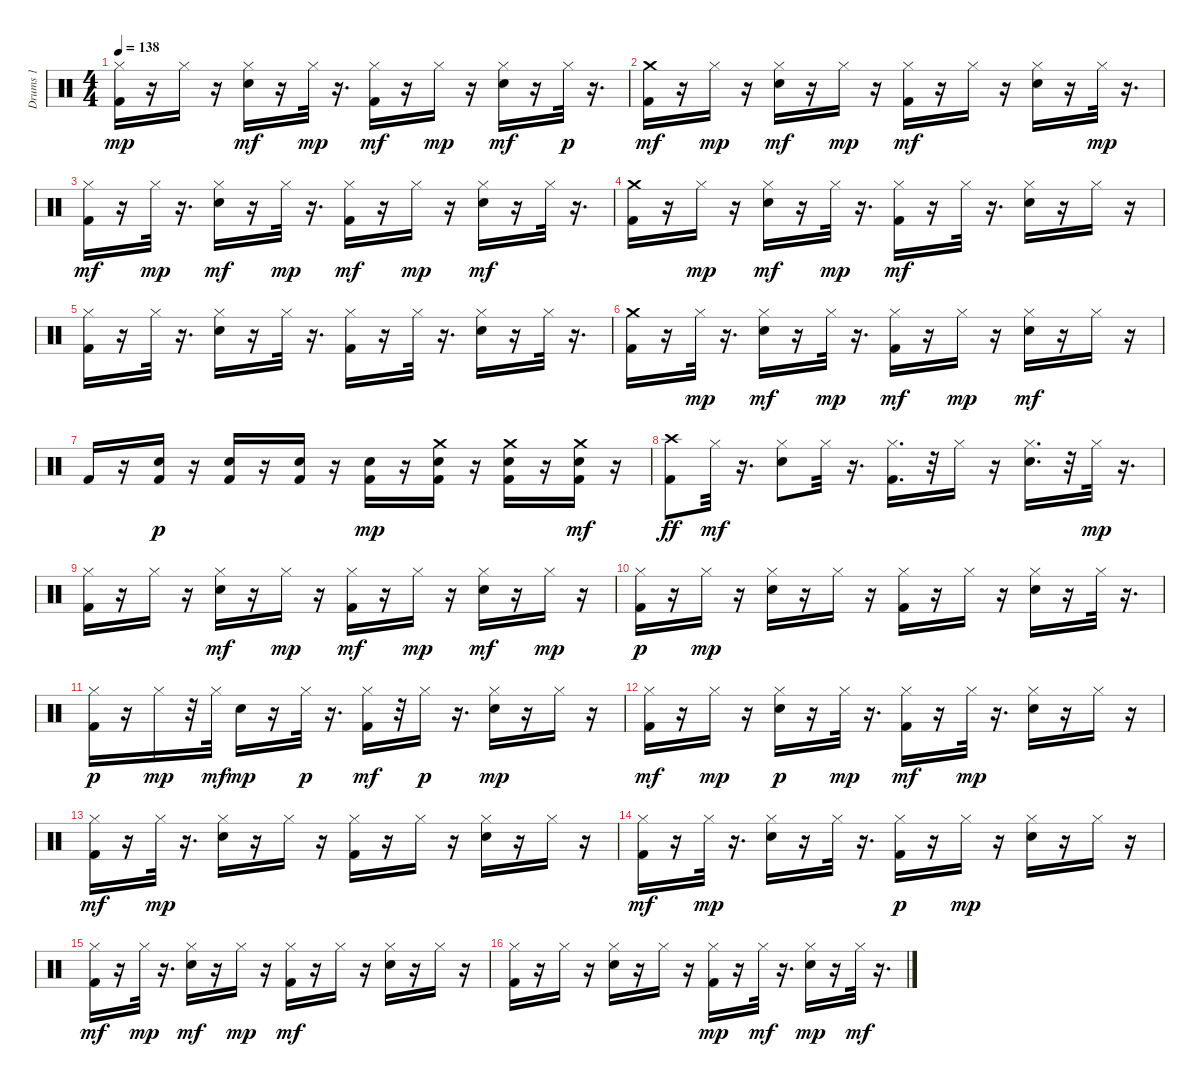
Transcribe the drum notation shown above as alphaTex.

\track ("Drums 1" "Drums 1") {instrument percussion}
\staff {score}
\articulation defaults
\ts (4 4)
\tempo 138
\clef neutral
\ks c
("Kick (hit) 2" "Hi-Hat (closed)").16{dy mp} r.16 "Hi-Hat (closed)".16 r.16 ("Snare (hit) 2" "Hi-Hat (closed)").16{dy mf} r.16 "Hi-Hat (closed)".32{dy mp} r.16{d} ("Kick (hit) 2" "Hi-Hat (closed)").16{dy mf} r.16 "Hi-Hat (closed)".16{dy mp} r.16 ("Snare (hit) 2" "Hi-Hat (closed)").16{dy mf} r.16 "Hi-Hat (closed)".32{dy p} r.16{d} |
("Kick (hit) 2" "Crash medium (hit)").16{dy mf} r.16 "Hi-Hat (closed)".16{dy mp} r.16 ("Hi-Hat (closed)" "Snare (hit) 2").16{dy mf} r.16 "Hi-Hat (closed)".16{dy mp} r.16 ("Kick (hit) 2" "Hi-Hat (closed)").16{dy mf} r.16 "Hi-Hat (closed)".16 r.16 ("Snare (hit) 2" "Hi-Hat (closed)").16 r.16 "Hi-Hat (closed)".32{dy mp} r.16{d} |
("Kick (hit) 2" "Hi-Hat (closed)").16{dy mf} r.16 "Hi-Hat (closed)".32{dy mp} r.16{d} ("Snare (hit) 2" "Hi-Hat (closed)").16{dy mf} r.16 "Hi-Hat (closed)".32{dy mp} r.16{d} ("Kick (hit) 2" "Hi-Hat (closed)").16{dy mf} r.16 "Hi-Hat (closed)".16{dy mp} r.16 ("Snare (hit) 2" "Hi-Hat (closed)").16{dy mf} r.16 "Hi-Hat (closed)".32 r.16{d} |
("Kick (hit) 2" "Crash medium (hit)").16 r.16 "Hi-Hat (closed)".16{dy mp} r.16 ("Snare (hit) 2" "Hi-Hat (closed)").16{dy mf} r.16 "Hi-Hat (closed)".32{dy mp} r.16{d} ("Kick (hit) 2" "Hi-Hat (closed)").16{dy mf} r.16 "Hi-Hat (closed)".32 r.16{d} ("Snare (hit) 2" "Hi-Hat (closed)").16 r.16 "Hi-Hat (closed)".16 r.16 |
("Kick (hit) 2" "Hi-Hat (closed)").16 r.16 "Hi-Hat (closed)".32 r.16{d} ("Snare (hit) 2" "Hi-Hat (closed)").16 r.16 "Hi-Hat (closed)".32 r.16{d} ("Kick (hit) 2" "Hi-Hat (closed)").16 r.16 "Hi-Hat (closed)".32 r.16{d} ("Snare (hit) 2" "Hi-Hat (closed)").16 r.16 "Hi-Hat (closed)".32 r.16{d} |
("Kick (hit) 2" "Crash medium (hit)").16 r.16 "Hi-Hat (closed)".32{dy mp} r.16{d} ("Snare (hit) 2" "Hi-Hat (closed)").16{dy mf} r.16 "Hi-Hat (closed)".32{dy mp} r.16{d} ("Kick (hit) 2" "Hi-Hat (closed)").16{dy mf} r.16 "Hi-Hat (closed)".16{dy mp} r.16 ("Snare (hit) 2" "Hi-Hat (closed)").16{dy mf} r.16 "Hi-Hat (closed)".16 r.16 |
"Kick (hit) 2".16 r.16 ("Kick (hit) 2" "Snare (hit) 2").16{dy p} r.16 ("Kick (hit) 2" "Snare (hit) 2").16 r.16 ("Kick (hit) 2" "Snare (hit) 2").16 r.16 ("Kick (hit) 2" "Snare (hit) 2").16{dy mp} r.16 ("Kick (hit) 2" "Crash medium (hit)" "Snare (hit) 2").16 r.16 ("Kick (hit) 2" "Crash medium (hit)" "Snare (hit) 2").16 r.16 ("Crash medium (hit)" "Kick (hit) 2" "Snare (hit) 2").16{dy mf} r.16 |
("Kick (hit) 2" "Crash high (hit)").8{dy ff} "Hi-Hat (closed)".32{dy mf} r.16{d} ("Hi-Hat (closed)" "Snare (hit) 2").8 "Hi-Hat (closed)".32 r.16{d} ("Kick (hit) 2" "Hi-Hat (closed)").16{d} r.32 "Hi-Hat (closed)".16 r.16 ("Hi-Hat (closed)" "Snare (hit) 2").16{d} r.32 "Hi-Hat (closed)".32{dy mp} r.16{d} |
("Hi-Hat (closed)" "Kick (hit) 2").16 r.16 "Hi-Hat (closed)".16 r.16 ("Hi-Hat (closed)" "Snare (hit) 2").16{dy mf} r.16 "Hi-Hat (closed)".16{dy mp} r.16 ("Kick (hit) 2" "Hi-Hat (closed)").16{dy mf} r.16 "Hi-Hat (closed)".16{dy mp} r.16 ("Hi-Hat (closed)" "Snare (hit) 2").16{dy mf} r.16 "Hi-Hat (closed)".16{dy mp} r.16 |
("Hi-Hat (closed)" "Kick (hit) 2").16{dy p} r.16 "Hi-Hat (closed)".16{dy mp} r.16 ("Hi-Hat (closed)" "Snare (hit) 2").16 r.16 "Hi-Hat (closed)".16 r.16 ("Hi-Hat (closed)" "Kick (hit) 2").16 r.16 "Hi-Hat (closed)".16 r.16 ("Hi-Hat (closed)" "Snare (hit) 2").16 r.16 "Hi-Hat (closed)".32 r.16{d} |
("Hi-Hat (closed)" "Kick (hit) 2").16{dy p} r.16 "Hi-Hat (closed)".16{dy mp} r.32 "Hi-Hat (closed)".32{dy mf} "Snare (hit) 2".16{dy mp} r.16 "Hi-Hat (closed)".32{dy p} r.16{d} ("Kick (hit) 2" "Hi-Hat (closed)").16{dy mf} r.32 "Hi-Hat (closed)".16{dy p} r.16{d} ("Hi-Hat (closed)" "Snare (hit) 2").16{dy mp} r.16 "Hi-Hat (closed)".16 r.16 |
("Kick (hit) 2" "Hi-Hat (closed)").16{dy mf} r.16 "Hi-Hat (closed)".16{dy mp} r.16 ("Hi-Hat (closed)" "Snare (hit) 2").16{dy p} r.16 "Hi-Hat (closed)".32{dy mp} r.16{d} ("Kick (hit) 2" "Hi-Hat (closed)").16{dy mf} r.16 "Hi-Hat (closed)".32{dy mp} r.16{d} ("Hi-Hat (closed)" "Snare (hit) 2").16 r.16 "Hi-Hat (closed)".16 r.16 |
("Kick (hit) 2" "Hi-Hat (closed)").16{dy mf} r.16 "Hi-Hat (closed)".32{dy mp} r.16{d} ("Hi-Hat (closed)" "Snare (hit) 2").16 r.16 "Hi-Hat (closed)".16 r.16 ("Hi-Hat (closed)" "Kick (hit) 2").16 r.16 "Hi-Hat (closed)".16 r.16 ("Hi-Hat (closed)" "Snare (hit) 2").16 r.16 "Hi-Hat (closed)".16 r.16 |
("Kick (hit) 2" "Hi-Hat (closed)").16{dy mf} r.16 "Hi-Hat (closed)".32{dy mp} r.16{d} ("Hi-Hat (closed)" "Snare (hit) 2").16 r.16 "Hi-Hat (closed)".32 r.16{d} ("Hi-Hat (closed)" "Kick (hit) 2").16{dy p} r.16 "Hi-Hat (closed)".16{dy mp} r.16 ("Hi-Hat (closed)" "Snare (hit) 2").16 r.16 "Hi-Hat (closed)".16 r.16 |
("Kick (hit) 2" "Hi-Hat (closed)").16{dy mf} r.16 "Hi-Hat (closed)".32{dy mp} r.16{d} ("Snare (hit) 2" "Hi-Hat (closed)").16{dy mf} r.16 "Hi-Hat (closed)".16{dy mp} r.16 ("Kick (hit) 2" "Hi-Hat (closed)").16{dy mf} r.16 "Hi-Hat (closed)".16 r.16 ("Snare (hit) 2" "Hi-Hat (closed)").16 r.16 "Hi-Hat (closed)".16 r.16 |
("Kick (hit) 2" "Hi-Hat (closed)").16 r.16 "Hi-Hat (closed)".16 r.16 ("Hi-Hat (closed)" "Snare (hit) 2").16 r.16 "Hi-Hat (closed)".16 r.16 ("Hi-Hat (closed)" "Kick (hit) 2").16{dy mp} r.16 "Hi-Hat (closed)".32{dy mf} r.16{d} ("Hi-Hat (closed)" "Snare (hit) 2").16{dy mp} r.16 "Hi-Hat (closed)".32{dy mf} r.16{d}
